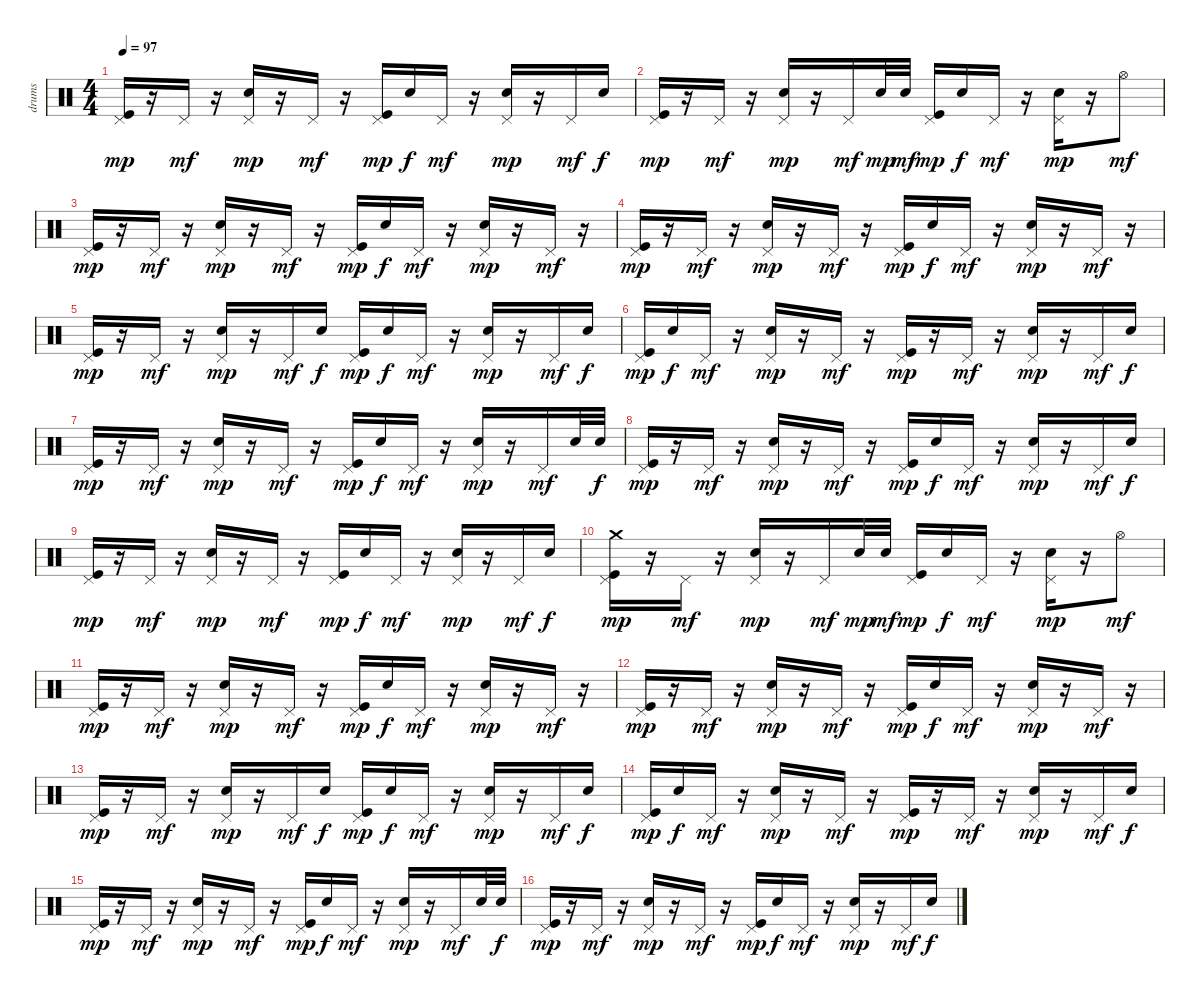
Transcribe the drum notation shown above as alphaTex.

\track ("drums" "drums") {instrument percussion}
\staff {score}
\articulation defaults
\ts (4 4)
\tempo 97
\clef neutral
\ks c
("Kick (hit)" "Pedal Hi-Hat (hit)").16{dy mp} r.16 "Pedal Hi-Hat (hit)".16{dy mf} r.16 ("Electric Snare (hit)" "Pedal Hi-Hat (hit)").16{dy mp} r.16 "Pedal Hi-Hat (hit)".16{dy mf} r.16 ("Pedal Hi-Hat (hit)" "Kick (hit)").16{dy mp} "Electric Snare (hit)".16{dy f} "Pedal Hi-Hat (hit)".16{dy mf} r.16 ("Electric Snare (hit)" "Pedal Hi-Hat (hit)").16{dy mp} r.16 "Pedal Hi-Hat (hit)".16{dy mf} "Electric Snare (hit)".16{dy f} |
("Kick (hit)" "Pedal Hi-Hat (hit)").16{dy mp} r.16 "Pedal Hi-Hat (hit)".16{dy mf} r.16 ("Electric Snare (hit)" "Pedal Hi-Hat (hit)").16{dy mp} r.16 "Pedal Hi-Hat (hit)".16{dy mf} "Electric Snare (hit)".32{dy mp} "Electric Snare (hit)".32{dy mf} ("Pedal Hi-Hat (hit)" "Kick (hit)").16{dy mp} "Electric Snare (hit)".16{dy f} "Pedal Hi-Hat (hit)".16{dy mf} r.16 ("Electric Snare (hit)" "Pedal Hi-Hat (hit)").16{dy mp} r.16 "Hi-Hat (open)".8{dy mf} |
("Kick (hit)" "Pedal Hi-Hat (hit)").16{dy mp} r.16 "Pedal Hi-Hat (hit)".16{dy mf} r.16 ("Electric Snare (hit)" "Pedal Hi-Hat (hit)").16{dy mp} r.16 "Pedal Hi-Hat (hit)".16{dy mf} r.16 ("Pedal Hi-Hat (hit)" "Kick (hit)").16{dy mp} "Electric Snare (hit)".16{dy f} "Pedal Hi-Hat (hit)".16{dy mf} r.16 ("Electric Snare (hit)" "Pedal Hi-Hat (hit)").16{dy mp} r.16 "Pedal Hi-Hat (hit)".16{dy mf} r.16 |
("Kick (hit)" "Pedal Hi-Hat (hit)").16{dy mp} r.16 "Pedal Hi-Hat (hit)".16{dy mf} r.16 ("Electric Snare (hit)" "Pedal Hi-Hat (hit)").16{dy mp} r.16 "Pedal Hi-Hat (hit)".16{dy mf} r.16 ("Pedal Hi-Hat (hit)" "Kick (hit)").16{dy mp} "Electric Snare (hit)".16{dy f} "Pedal Hi-Hat (hit)".16{dy mf} r.16 ("Electric Snare (hit)" "Pedal Hi-Hat (hit)").16{dy mp} r.16 "Pedal Hi-Hat (hit)".16{dy mf} r.16 |
("Kick (hit)" "Pedal Hi-Hat (hit)").16{dy mp} r.16 "Pedal Hi-Hat (hit)".16{dy mf} r.16 ("Electric Snare (hit)" "Pedal Hi-Hat (hit)").16{dy mp} r.16 "Pedal Hi-Hat (hit)".16{dy mf} "Electric Snare (hit)".16{dy f} ("Pedal Hi-Hat (hit)" "Kick (hit)").16{dy mp} "Electric Snare (hit)".16{dy f} "Pedal Hi-Hat (hit)".16{dy mf} r.16 ("Electric Snare (hit)" "Pedal Hi-Hat (hit)").16{dy mp} r.16 "Pedal Hi-Hat (hit)".16{dy mf} "Electric Snare (hit)".16{dy f} |
("Kick (hit)" "Pedal Hi-Hat (hit)").16{dy mp} "Electric Snare (hit)".16{dy f} "Pedal Hi-Hat (hit)".16{dy mf} r.16 ("Electric Snare (hit)" "Pedal Hi-Hat (hit)").16{dy mp} r.16 "Pedal Hi-Hat (hit)".16{dy mf} r.16 ("Pedal Hi-Hat (hit)" "Kick (hit)").16{dy mp} r.16 "Pedal Hi-Hat (hit)".16{dy mf} r.16 ("Electric Snare (hit)" "Pedal Hi-Hat (hit)").16{dy mp} r.16 "Pedal Hi-Hat (hit)".16{dy mf} "Electric Snare (hit)".16{dy f} |
("Kick (hit)" "Pedal Hi-Hat (hit)").16{dy mp} r.16 "Pedal Hi-Hat (hit)".16{dy mf} r.16 ("Electric Snare (hit)" "Pedal Hi-Hat (hit)").16{dy mp} r.16 "Pedal Hi-Hat (hit)".16{dy mf} r.16 ("Pedal Hi-Hat (hit)" "Kick (hit)").16{dy mp} "Electric Snare (hit)".16{dy f} "Pedal Hi-Hat (hit)".16{dy mf} r.16 ("Electric Snare (hit)" "Pedal Hi-Hat (hit)").16{dy mp} r.16 "Pedal Hi-Hat (hit)".16{dy mf} "Electric Snare (hit)".32 "Electric Snare (hit)".32{dy f} |
("Kick (hit)" "Pedal Hi-Hat (hit)").16{dy mp} r.16 "Pedal Hi-Hat (hit)".16{dy mf} r.16 ("Electric Snare (hit)" "Pedal Hi-Hat (hit)").16{dy mp} r.16 "Pedal Hi-Hat (hit)".16{dy mf} r.16 ("Pedal Hi-Hat (hit)" "Kick (hit)").16{dy mp} "Electric Snare (hit)".16{dy f} "Pedal Hi-Hat (hit)".16{dy mf} r.16 ("Electric Snare (hit)" "Pedal Hi-Hat (hit)").16{dy mp} r.16 "Pedal Hi-Hat (hit)".16{dy mf} "Electric Snare (hit)".16{dy f} |
("Kick (hit)" "Pedal Hi-Hat (hit)").16{dy mp} r.16 "Pedal Hi-Hat (hit)".16{dy mf} r.16 ("Electric Snare (hit)" "Pedal Hi-Hat (hit)").16{dy mp} r.16 "Pedal Hi-Hat (hit)".16{dy mf} r.16 ("Pedal Hi-Hat (hit)" "Kick (hit)").16{dy mp} "Electric Snare (hit)".16{dy f} "Pedal Hi-Hat (hit)".16{dy mf} r.16 ("Electric Snare (hit)" "Pedal Hi-Hat (hit)").16{dy mp} r.16 "Pedal Hi-Hat (hit)".16{dy mf} "Electric Snare (hit)".16{dy f} |
("Crash medium (hit)" "Kick (hit)" "Pedal Hi-Hat (hit)").16{dy mp} r.16 "Pedal Hi-Hat (hit)".16{dy mf} r.16 ("Electric Snare (hit)" "Pedal Hi-Hat (hit)").16{dy mp} r.16 "Pedal Hi-Hat (hit)".16{dy mf} "Electric Snare (hit)".32{dy mp} "Electric Snare (hit)".32{dy mf} ("Pedal Hi-Hat (hit)" "Kick (hit)").16{dy mp} "Electric Snare (hit)".16{dy f} "Pedal Hi-Hat (hit)".16{dy mf} r.16 ("Electric Snare (hit)" "Pedal Hi-Hat (hit)").16{dy mp} r.16 "Hi-Hat (open)".8{dy mf} |
("Kick (hit)" "Pedal Hi-Hat (hit)").16{dy mp} r.16 "Pedal Hi-Hat (hit)".16{dy mf} r.16 ("Electric Snare (hit)" "Pedal Hi-Hat (hit)").16{dy mp} r.16 "Pedal Hi-Hat (hit)".16{dy mf} r.16 ("Pedal Hi-Hat (hit)" "Kick (hit)").16{dy mp} "Electric Snare (hit)".16{dy f} "Pedal Hi-Hat (hit)".16{dy mf} r.16 ("Electric Snare (hit)" "Pedal Hi-Hat (hit)").16{dy mp} r.16 "Pedal Hi-Hat (hit)".16{dy mf} r.16 |
("Kick (hit)" "Pedal Hi-Hat (hit)").16{dy mp} r.16 "Pedal Hi-Hat (hit)".16{dy mf} r.16 ("Electric Snare (hit)" "Pedal Hi-Hat (hit)").16{dy mp} r.16 "Pedal Hi-Hat (hit)".16{dy mf} r.16 ("Pedal Hi-Hat (hit)" "Kick (hit)").16{dy mp} "Electric Snare (hit)".16{dy f} "Pedal Hi-Hat (hit)".16{dy mf} r.16 ("Electric Snare (hit)" "Pedal Hi-Hat (hit)").16{dy mp} r.16 "Pedal Hi-Hat (hit)".16{dy mf} r.16 |
("Kick (hit)" "Pedal Hi-Hat (hit)").16{dy mp} r.16 "Pedal Hi-Hat (hit)".16{dy mf} r.16 ("Electric Snare (hit)" "Pedal Hi-Hat (hit)").16{dy mp} r.16 "Pedal Hi-Hat (hit)".16{dy mf} "Electric Snare (hit)".16{dy f} ("Pedal Hi-Hat (hit)" "Kick (hit)").16{dy mp} "Electric Snare (hit)".16{dy f} "Pedal Hi-Hat (hit)".16{dy mf} r.16 ("Electric Snare (hit)" "Pedal Hi-Hat (hit)").16{dy mp} r.16 "Pedal Hi-Hat (hit)".16{dy mf} "Electric Snare (hit)".16{dy f} |
("Kick (hit)" "Pedal Hi-Hat (hit)").16{dy mp} "Electric Snare (hit)".16{dy f} "Pedal Hi-Hat (hit)".16{dy mf} r.16 ("Electric Snare (hit)" "Pedal Hi-Hat (hit)").16{dy mp} r.16 "Pedal Hi-Hat (hit)".16{dy mf} r.16 ("Pedal Hi-Hat (hit)" "Kick (hit)").16{dy mp} r.16 "Pedal Hi-Hat (hit)".16{dy mf} r.16 ("Electric Snare (hit)" "Pedal Hi-Hat (hit)").16{dy mp} r.16 "Pedal Hi-Hat (hit)".16{dy mf} "Electric Snare (hit)".16{dy f} |
("Kick (hit)" "Pedal Hi-Hat (hit)").16{dy mp} r.16 "Pedal Hi-Hat (hit)".16{dy mf} r.16 ("Electric Snare (hit)" "Pedal Hi-Hat (hit)").16{dy mp} r.16 "Pedal Hi-Hat (hit)".16{dy mf} r.16 ("Pedal Hi-Hat (hit)" "Kick (hit)").16{dy mp} "Electric Snare (hit)".16{dy f} "Pedal Hi-Hat (hit)".16{dy mf} r.16 ("Electric Snare (hit)" "Pedal Hi-Hat (hit)").16{dy mp} r.16 "Pedal Hi-Hat (hit)".16{dy mf} "Electric Snare (hit)".32 "Electric Snare (hit)".32{dy f} |
("Kick (hit)" "Pedal Hi-Hat (hit)").16{dy mp} r.16 "Pedal Hi-Hat (hit)".16{dy mf} r.16 ("Electric Snare (hit)" "Pedal Hi-Hat (hit)").16{dy mp} r.16 "Pedal Hi-Hat (hit)".16{dy mf} r.16 ("Pedal Hi-Hat (hit)" "Kick (hit)").16{dy mp} "Electric Snare (hit)".16{dy f} "Pedal Hi-Hat (hit)".16{dy mf} r.16 ("Electric Snare (hit)" "Pedal Hi-Hat (hit)").16{dy mp} r.16 "Pedal Hi-Hat (hit)".16{dy mf} "Electric Snare (hit)".16{dy f}
